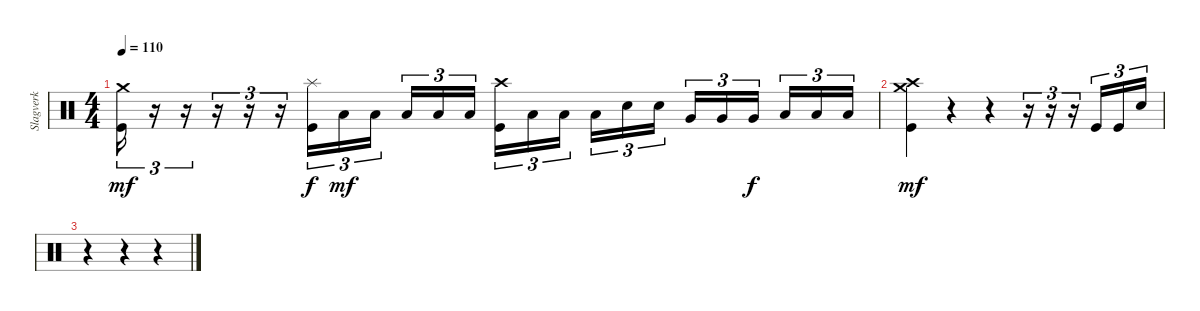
\track ("Slagverk" "Slagverk") {instrument percussion}
\staff {score}
\articulation defaults
\ts (4 4)
\tempo 110
\clef neutral
\ks c
("Crash medium (hit)" "Kick (hit)").16{tu (3 2) dy mf} r.16{tu (3 2)} r.16{tu (3 2)} r.16{tu (3 2)} r.16{tu (3 2)} r.16{tu (3 2)} ("Splash (hit)" "Kick (hit)").16{tu (3 2) dy f} "Low Tom (hit)".16{tu (3 2) dy mf} "Low Tom (hit)".16{tu (3 2) beam splitsecondary} "Low Tom (hit)".16{tu (3 2)} "Low Tom (hit)".16{tu (3 2)} "Low Tom (hit)".16{tu (3 2)} ("Crash high (hit)" "Kick (hit)").16{tu (3 2)} "Low Tom (hit)".16{tu (3 2)} "Low Tom (hit)".16{tu (3 2) beam splitsecondary} "Low Tom (hit)".16{tu (3 2)} "Electric Snare (hit)".16{tu (3 2)} "Electric Snare (hit)".16{tu (3 2)} "Very Low Tom (hit)".16{tu (3 2)} "Very Low Tom (hit)".16{tu (3 2)} "Very Low Tom (hit)".16{tu (3 2) dy f beam splitsecondary} "Low Floor Tom (hit)".16{tu (3 2)} "Low Floor Tom (hit)".16{tu (3 2)} "Low Floor Tom (hit)".16{tu (3 2)} |
("Crash medium (hit)" "Crash high (hit)" "Kick (hit)").4{dy mf} r.4 r.4 r.16{tu (3 2)} r.16{tu (3 2)} r.16{tu (3 2)} "Kick (hit)".16{tu (3 2)} "Kick (hit)".16{tu (3 2)} "Electric Snare (hit)".16{tu (3 2)} |
r.4 r.4{tu (3 2)} r.4{tu (3 2)}
